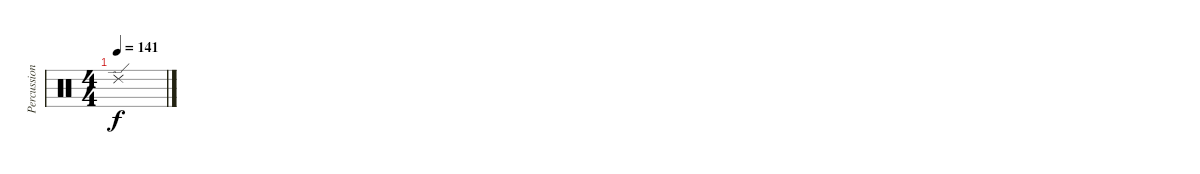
\track ("Percussion" "Percussion") {instrument percussion}
\staff {score}
\articulation defaults
\ts (4 4)
\tempo 141
\clef neutral
\ks c "Ride (edge) 2".1{dy f}
